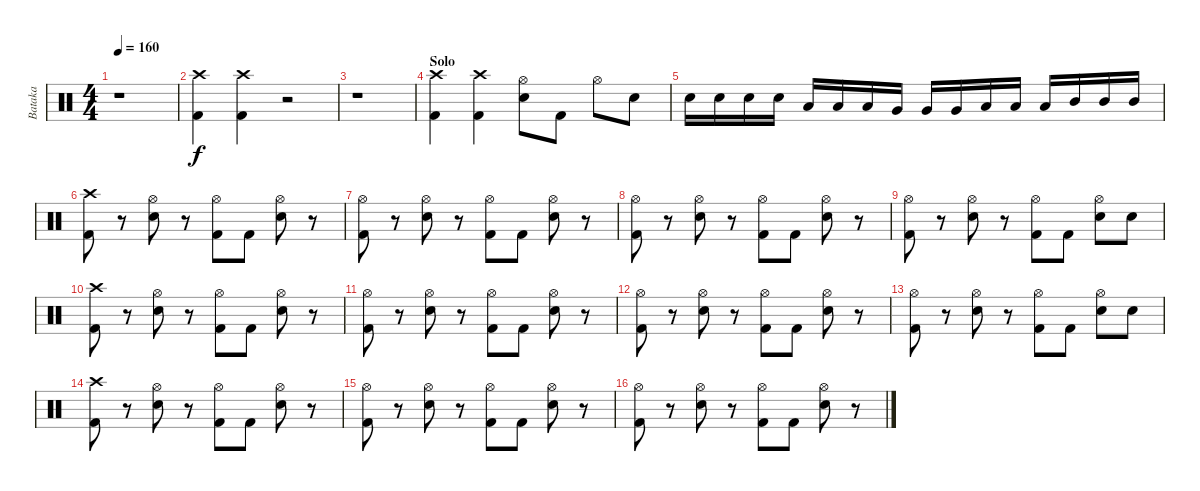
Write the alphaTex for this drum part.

\track ("Bataka" "Bataka") {instrument percussion}
\staff {score}
\articulation defaults
\ts (4 4)
\tempo 160
\clef neutral
\ks c
r.1{dy f} |
("Crash high (hit)" "Kick (hit) 2").4 ("Crash high (hit)" "Kick (hit) 2").4 r.2 |
r.1 |
\section ("" "Solo")
("Crash high (hit)" "Kick (hit) 2").4 ("Crash high (hit)" "Kick (hit) 2").4 ("Hi-Hat (open)" "Snare (hit) 2").8 "Kick (hit) 2".8 "Hi-Hat (open)".8 "Snare (hit) 2".8 |
"Snare (hit) 2".16 "Snare (hit) 2".16 "Snare (hit) 2".16 "Snare (hit) 2".16 "Low Floor Tom (hit)".16 "Low Floor Tom (hit)".16 "Low Floor Tom (hit)".16 "Very Low Tom (hit)".16 "Very Low Tom (hit)".16 "Very Low Tom (hit)".16 "Low Tom (hit)".16 "Low Tom (hit)".16 "Low Tom (hit)".16 "Mid Tom (hit)".16 "Mid Tom (hit)".16 "Mid Tom (hit)".16 |
("Crash high (hit)" "Kick (hit) 2").8 r.8 ("Hi-Hat (open)" "Snare (hit) 2").8 r.8 ("Hi-Hat (open)" "Kick (hit) 2").8 "Kick (hit) 2".8 ("Hi-Hat (open)" "Snare (hit) 2").8 r.8 |
("Hi-Hat (open)" "Kick (hit) 2").8 r.8 ("Hi-Hat (open)" "Snare (hit) 2").8 r.8 ("Hi-Hat (open)" "Kick (hit) 2").8 "Kick (hit) 2".8 ("Hi-Hat (open)" "Snare (hit) 2").8 r.8 |
("Hi-Hat (open)" "Kick (hit) 2").8 r.8 ("Hi-Hat (open)" "Snare (hit) 2").8 r.8 ("Hi-Hat (open)" "Kick (hit) 2").8 "Kick (hit) 2".8 ("Hi-Hat (open)" "Snare (hit) 2").8 r.8 |
("Hi-Hat (open)" "Kick (hit) 2").8 r.8 ("Hi-Hat (open)" "Snare (hit) 2").8 r.8 ("Hi-Hat (open)" "Kick (hit) 2").8 "Kick (hit) 2".8 ("Hi-Hat (open)" "Snare (hit) 2").8 "Snare (hit) 2".8 |
("Crash high (hit)" "Kick (hit) 2").8 r.8 ("Hi-Hat (open)" "Snare (hit) 2").8 r.8 ("Hi-Hat (open)" "Kick (hit) 2").8 "Kick (hit) 2".8 ("Hi-Hat (open)" "Snare (hit) 2").8 r.8 |
("Hi-Hat (open)" "Kick (hit) 2").8 r.8 ("Hi-Hat (open)" "Snare (hit) 2").8 r.8 ("Hi-Hat (open)" "Kick (hit) 2").8 "Kick (hit) 2".8 ("Hi-Hat (open)" "Snare (hit) 2").8 r.8 |
("Hi-Hat (open)" "Kick (hit) 2").8 r.8 ("Hi-Hat (open)" "Snare (hit) 2").8 r.8 ("Hi-Hat (open)" "Kick (hit) 2").8 "Kick (hit) 2".8 ("Hi-Hat (open)" "Snare (hit) 2").8 r.8 |
("Hi-Hat (open)" "Kick (hit) 2").8 r.8 ("Hi-Hat (open)" "Snare (hit) 2").8 r.8 ("Hi-Hat (open)" "Kick (hit) 2").8 "Kick (hit) 2".8 ("Hi-Hat (open)" "Snare (hit) 2").8 "Snare (hit) 2".8 |
("Crash high (hit)" "Kick (hit) 2").8 r.8 ("Hi-Hat (open)" "Snare (hit) 2").8 r.8 ("Hi-Hat (open)" "Kick (hit) 2").8 "Kick (hit) 2".8 ("Hi-Hat (open)" "Snare (hit) 2").8 r.8 |
("Hi-Hat (open)" "Kick (hit) 2").8 r.8 ("Hi-Hat (open)" "Snare (hit) 2").8 r.8 ("Hi-Hat (open)" "Kick (hit) 2").8 "Kick (hit) 2".8 ("Hi-Hat (open)" "Snare (hit) 2").8 r.8 |
("Hi-Hat (open)" "Kick (hit) 2").8 r.8 ("Hi-Hat (open)" "Snare (hit) 2").8 r.8 ("Hi-Hat (open)" "Kick (hit) 2").8 "Kick (hit) 2".8 ("Hi-Hat (open)" "Snare (hit) 2").8 r.8
